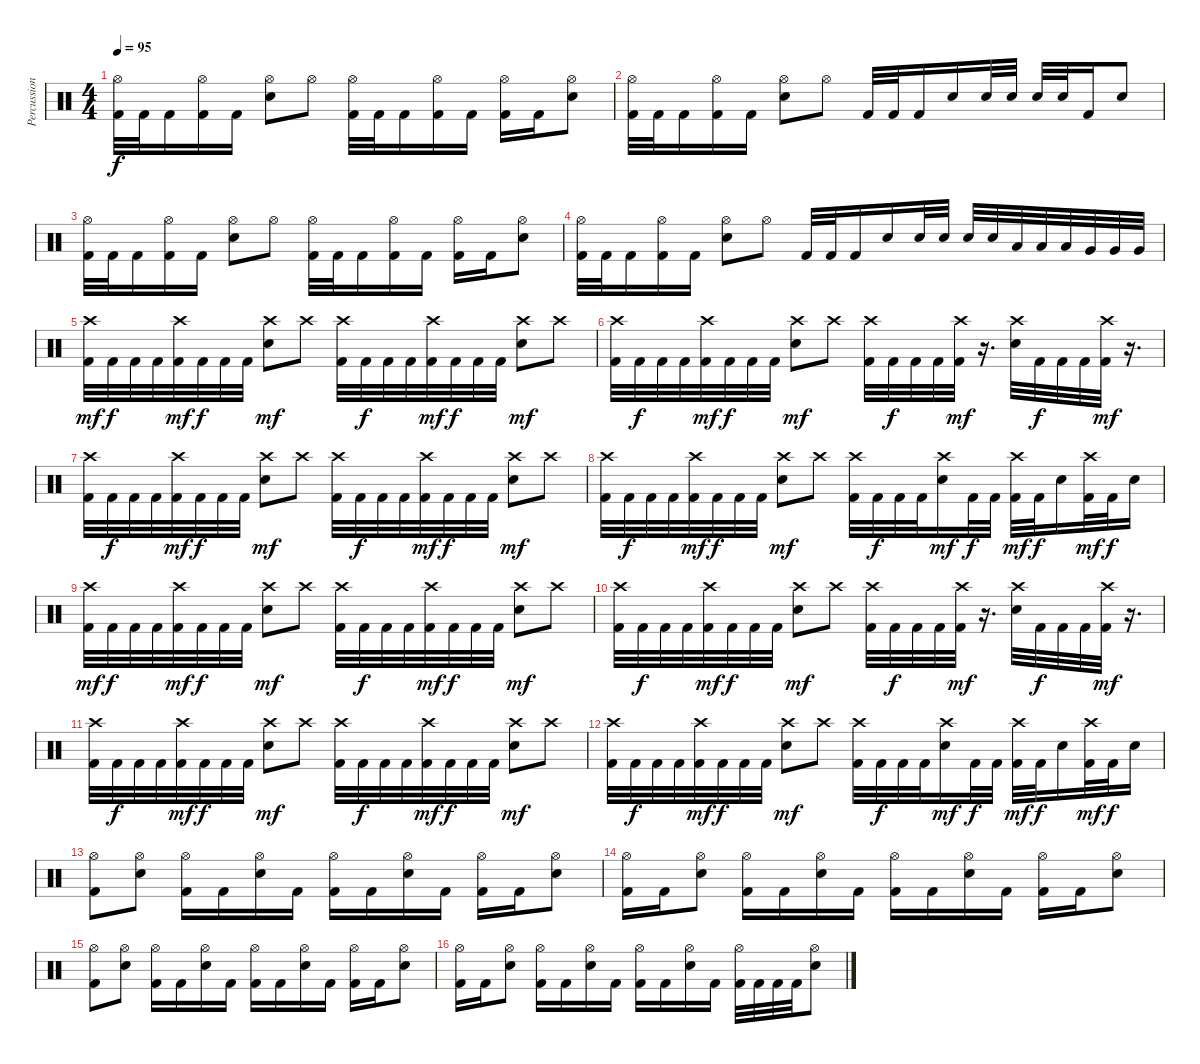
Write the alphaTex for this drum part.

\track ("Percussion" "Percussion") {instrument percussion}
\staff {score}
\articulation defaults
\ts (4 4)
\tempo 95
\clef neutral
\ks c
("Hi-Hat (open)" "Kick (hit) 2").32{dy f} "Kick (hit) 2".32 "Kick (hit) 2".16 ("Hi-Hat (open)" "Kick (hit) 2").16 "Kick (hit) 2".16 ("Hi-Hat (open)" "Electric Snare (hit)").8 "Hi-Hat (open)".8 ("Hi-Hat (open)" "Kick (hit) 2").32 "Kick (hit) 2".32 "Kick (hit) 2".16 ("Hi-Hat (open)" "Kick (hit) 2").16 "Kick (hit) 2".16 ("Hi-Hat (open)" "Kick (hit) 2").16 "Kick (hit) 2".16 ("Hi-Hat (open)" "Electric Snare (hit)").8 |
("Hi-Hat (open)" "Kick (hit) 2").32 "Kick (hit) 2".32 "Kick (hit) 2".16 ("Hi-Hat (open)" "Kick (hit) 2").16 "Kick (hit) 2".16 ("Hi-Hat (open)" "Electric Snare (hit)").8 "Hi-Hat (open)".8 "Kick (hit) 2".32 "Kick (hit) 2".32 "Kick (hit) 2".16 "Electric Snare (hit)".16 "Electric Snare (hit)".32 "Electric Snare (hit)".32 "Electric Snare (hit)".32 "Electric Snare (hit)".32 "Kick (hit) 2".16 "Electric Snare (hit)".8 |
("Hi-Hat (open)" "Kick (hit) 2").32 "Kick (hit) 2".32 "Kick (hit) 2".16 ("Hi-Hat (open)" "Kick (hit) 2").16 "Kick (hit) 2".16 ("Hi-Hat (open)" "Electric Snare (hit)").8 "Hi-Hat (open)".8 ("Hi-Hat (open)" "Kick (hit) 2").32 "Kick (hit) 2".32 "Kick (hit) 2".16 ("Hi-Hat (open)" "Kick (hit) 2").16 "Kick (hit) 2".16 ("Hi-Hat (open)" "Kick (hit) 2").16 "Kick (hit) 2".16 ("Hi-Hat (open)" "Electric Snare (hit)").8 |
("Hi-Hat (open)" "Kick (hit) 2").32 "Kick (hit) 2".32 "Kick (hit) 2".16 ("Hi-Hat (open)" "Kick (hit) 2").16 "Kick (hit) 2".16 ("Hi-Hat (open)" "Electric Snare (hit)").8 "Hi-Hat (open)".8 "Kick (hit) 2".32 "Kick (hit) 2".32 "Kick (hit) 2".16 "Electric Snare (hit)".16 "Electric Snare (hit)".32 "Electric Snare (hit)".32 "Electric Snare (hit)".32 "Electric Snare (hit)".32 "Low Tom (hit)".32 "Low Tom (hit)".32 "Low Tom (hit)".32 "Very Low Tom (hit)".32 "Very Low Tom (hit)".32 "Very Low Tom (hit)".32 |
("Crash high (hit)" "Kick (hit) 2").32{dy mf} "Kick (hit) 2".32{dy f} "Kick (hit) 2".32 "Kick (hit) 2".32 ("Crash high (hit)" "Kick (hit) 2").32{dy mf} "Kick (hit) 2".32{dy f} "Kick (hit) 2".32 "Kick (hit) 2".32 ("Crash high (hit)" "Electric Snare (hit)").8{dy mf} "Crash high (hit)".8 ("Crash high (hit)" "Kick (hit) 2").32 "Kick (hit) 2".32{dy f} "Kick (hit) 2".32 "Kick (hit) 2".32 ("Crash high (hit)" "Kick (hit) 2").32{dy mf} "Kick (hit) 2".32{dy f} "Kick (hit) 2".32 "Kick (hit) 2".32 ("Crash high (hit)" "Electric Snare (hit)").8{dy mf} "Crash high (hit)".8 |
("Crash high (hit)" "Kick (hit) 2").32 "Kick (hit) 2".32{dy f} "Kick (hit) 2".32 "Kick (hit) 2".32 ("Crash high (hit)" "Kick (hit) 2").32{dy mf} "Kick (hit) 2".32{dy f} "Kick (hit) 2".32 "Kick (hit) 2".32 ("Crash high (hit)" "Electric Snare (hit)").8{dy mf} "Crash high (hit)".8 ("Crash high (hit)" "Kick (hit) 2").32 "Kick (hit) 2".32{dy f} "Kick (hit) 2".32 "Kick (hit) 2".32 ("Crash high (hit)" "Kick (hit) 2").32{dy mf} r.16{d} ("Crash high (hit)" "Electric Snare (hit)").32 "Kick (hit) 2".32{dy f} "Kick (hit) 2".32 "Kick (hit) 2".32 ("Crash high (hit)" "Kick (hit) 2").32{dy mf} r.16{d} |
("Crash high (hit)" "Kick (hit) 2").32 "Kick (hit) 2".32{dy f} "Kick (hit) 2".32 "Kick (hit) 2".32 ("Crash high (hit)" "Kick (hit) 2").32{dy mf} "Kick (hit) 2".32{dy f} "Kick (hit) 2".32 "Kick (hit) 2".32 ("Crash high (hit)" "Electric Snare (hit)").8{dy mf} "Crash high (hit)".8 ("Crash high (hit)" "Kick (hit) 2").32 "Kick (hit) 2".32{dy f} "Kick (hit) 2".32 "Kick (hit) 2".32 ("Crash high (hit)" "Kick (hit) 2").32{dy mf} "Kick (hit) 2".32{dy f} "Kick (hit) 2".32 "Kick (hit) 2".32 ("Crash high (hit)" "Electric Snare (hit)").8{dy mf} "Crash high (hit)".8 |
("Crash high (hit)" "Kick (hit) 2").32 "Kick (hit) 2".32{dy f} "Kick (hit) 2".32 "Kick (hit) 2".32 ("Crash high (hit)" "Kick (hit) 2").32{dy mf} "Kick (hit) 2".32{dy f} "Kick (hit) 2".32 "Kick (hit) 2".32 ("Crash high (hit)" "Electric Snare (hit)").8{dy mf} "Crash high (hit)".8 ("Crash high (hit)" "Kick (hit) 2").32 "Kick (hit) 2".32{dy f} "Kick (hit) 2".32 "Kick (hit) 2".32 ("Crash high (hit)" "Electric Snare (hit)").16{dy mf} "Kick (hit) 2".32{dy f} "Kick (hit) 2".32 ("Crash high (hit)" "Kick (hit) 2").32{dy mf} "Kick (hit) 2".32{dy f} "Electric Snare (hit)".16 ("Crash high (hit)" "Kick (hit) 2").32{dy mf} "Kick (hit) 2".32{dy f} "Electric Snare (hit)".16 |
("Crash high (hit)" "Kick (hit) 2").32{dy mf} "Kick (hit) 2".32{dy f} "Kick (hit) 2".32 "Kick (hit) 2".32 ("Crash high (hit)" "Kick (hit) 2").32{dy mf} "Kick (hit) 2".32{dy f} "Kick (hit) 2".32 "Kick (hit) 2".32 ("Crash high (hit)" "Electric Snare (hit)").8{dy mf} "Crash high (hit)".8 ("Crash high (hit)" "Kick (hit) 2").32 "Kick (hit) 2".32{dy f} "Kick (hit) 2".32 "Kick (hit) 2".32 ("Crash high (hit)" "Kick (hit) 2").32{dy mf} "Kick (hit) 2".32{dy f} "Kick (hit) 2".32 "Kick (hit) 2".32 ("Crash high (hit)" "Electric Snare (hit)").8{dy mf} "Crash high (hit)".8 |
("Crash high (hit)" "Kick (hit) 2").32 "Kick (hit) 2".32{dy f} "Kick (hit) 2".32 "Kick (hit) 2".32 ("Crash high (hit)" "Kick (hit) 2").32{dy mf} "Kick (hit) 2".32{dy f} "Kick (hit) 2".32 "Kick (hit) 2".32 ("Crash high (hit)" "Electric Snare (hit)").8{dy mf} "Crash high (hit)".8 ("Crash high (hit)" "Kick (hit) 2").32 "Kick (hit) 2".32{dy f} "Kick (hit) 2".32 "Kick (hit) 2".32 ("Crash high (hit)" "Kick (hit) 2").32{dy mf} r.16{d} ("Crash high (hit)" "Electric Snare (hit)").32 "Kick (hit) 2".32{dy f} "Kick (hit) 2".32 "Kick (hit) 2".32 ("Crash high (hit)" "Kick (hit) 2").32{dy mf} r.16{d} |
("Crash high (hit)" "Kick (hit) 2").32 "Kick (hit) 2".32{dy f} "Kick (hit) 2".32 "Kick (hit) 2".32 ("Crash high (hit)" "Kick (hit) 2").32{dy mf} "Kick (hit) 2".32{dy f} "Kick (hit) 2".32 "Kick (hit) 2".32 ("Crash high (hit)" "Electric Snare (hit)").8{dy mf} "Crash high (hit)".8 ("Crash high (hit)" "Kick (hit) 2").32 "Kick (hit) 2".32{dy f} "Kick (hit) 2".32 "Kick (hit) 2".32 ("Crash high (hit)" "Kick (hit) 2").32{dy mf} "Kick (hit) 2".32{dy f} "Kick (hit) 2".32 "Kick (hit) 2".32 ("Crash high (hit)" "Electric Snare (hit)").8{dy mf} "Crash high (hit)".8 |
("Crash high (hit)" "Kick (hit) 2").32 "Kick (hit) 2".32{dy f} "Kick (hit) 2".32 "Kick (hit) 2".32 ("Crash high (hit)" "Kick (hit) 2").32{dy mf} "Kick (hit) 2".32{dy f} "Kick (hit) 2".32 "Kick (hit) 2".32 ("Crash high (hit)" "Electric Snare (hit)").8{dy mf} "Crash high (hit)".8 ("Crash high (hit)" "Kick (hit) 2").32 "Kick (hit) 2".32{dy f} "Kick (hit) 2".32 "Kick (hit) 2".32 ("Crash high (hit)" "Electric Snare (hit)").16{dy mf} "Kick (hit) 2".32{dy f} "Kick (hit) 2".32 ("Crash high (hit)" "Kick (hit) 2").32{dy mf} "Kick (hit) 2".32{dy f} "Electric Snare (hit)".16 ("Crash high (hit)" "Kick (hit) 2").32{dy mf} "Kick (hit) 2".32{dy f} "Electric Snare (hit)".16 |
("Hi-Hat (open)" "Kick (hit) 2").8 ("Hi-Hat (open)" "Electric Snare (hit)").8 ("Hi-Hat (open)" "Kick (hit) 2").16 "Kick (hit) 2".16 ("Hi-Hat (open)" "Electric Snare (hit)").16 "Kick (hit) 2".16 ("Hi-Hat (open)" "Kick (hit) 2").16 "Kick (hit) 2".16 ("Hi-Hat (open)" "Electric Snare (hit)").16 "Kick (hit) 2".16 ("Hi-Hat (open)" "Kick (hit) 2").16 "Kick (hit) 2".16 ("Hi-Hat (open)" "Electric Snare (hit)").8 |
("Hi-Hat (open)" "Kick (hit) 2").16 "Kick (hit) 2".16 ("Hi-Hat (open)" "Electric Snare (hit)").8 ("Hi-Hat (open)" "Kick (hit) 2").16 "Kick (hit) 2".16 ("Hi-Hat (open)" "Electric Snare (hit)").16 "Kick (hit) 2".16 ("Hi-Hat (open)" "Kick (hit) 2").16 "Kick (hit) 2".16 ("Hi-Hat (open)" "Electric Snare (hit)").16 "Kick (hit) 2".16 ("Hi-Hat (open)" "Kick (hit) 2").16 "Kick (hit) 2".16 ("Hi-Hat (open)" "Electric Snare (hit)").8 |
("Hi-Hat (open)" "Kick (hit) 2").8 ("Hi-Hat (open)" "Electric Snare (hit)").8 ("Hi-Hat (open)" "Kick (hit) 2").16 "Kick (hit) 2".16 ("Hi-Hat (open)" "Electric Snare (hit)").16 "Kick (hit) 2".16 ("Hi-Hat (open)" "Kick (hit) 2").16 "Kick (hit) 2".16 ("Hi-Hat (open)" "Electric Snare (hit)").16 "Kick (hit) 2".16 ("Hi-Hat (open)" "Kick (hit) 2").16 "Kick (hit) 2".16 ("Hi-Hat (open)" "Electric Snare (hit)").8 |
("Hi-Hat (open)" "Kick (hit) 2").16 "Kick (hit) 2".16 ("Hi-Hat (open)" "Electric Snare (hit)").8 ("Hi-Hat (open)" "Kick (hit) 2").16 "Kick (hit) 2".16 ("Hi-Hat (open)" "Electric Snare (hit)").16 "Kick (hit) 2".16 ("Hi-Hat (open)" "Kick (hit) 2").16 "Kick (hit) 2".16 ("Hi-Hat (open)" "Electric Snare (hit)").16 "Kick (hit) 2".16 ("Hi-Hat (open)" "Kick (hit) 2").32 "Kick (hit) 2".32 "Kick (hit) 2".32 "Kick (hit) 2".32 ("Hi-Hat (open)" "Electric Snare (hit)").8
